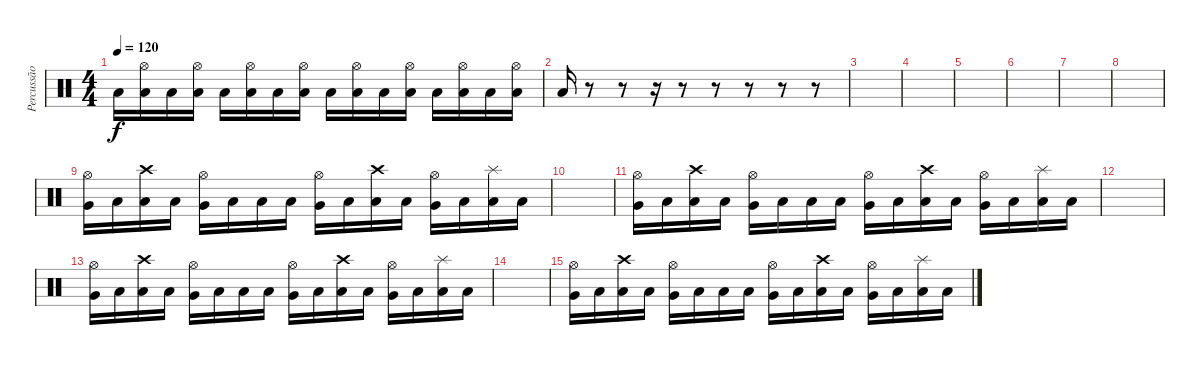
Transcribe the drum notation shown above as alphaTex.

\track ("Percussão" "Percussão") {instrument percussion}
\staff {score}
\articulation defaults
\ts (4 4)
\tempo 120
\clef neutral
\ks c "Low Tom (hit)".16{dy f}
("Low Tom (hit)" "Hi-Hat (open)").16 "Low Tom (hit)".16 ("Low Tom (hit)" "Hi-Hat (open)").16 "Low Tom (hit)".16 ("Low Tom (hit)" "Hi-Hat (open)").16 "Low Tom (hit)".16 ("Low Tom (hit)" "Hi-Hat (open)").16 "Low Tom (hit)".16 ("Low Tom (hit)" "Hi-Hat (open)").16 "Low Tom (hit)".16 ("Low Tom (hit)" "Hi-Hat (open)").16 "Low Tom (hit)".16 ("Low Tom (hit)" "Hi-Hat (open)").16 "Low Tom (hit)".16 ("Low Tom (hit)" "Hi-Hat (open)").16 |
"Low Tom (hit)".16 r.8 r.8 r.16 r.8 r.8 r.8 r.8 r.8 |
|
|
|
|
|
|
("Very Low Tom (hit)" "Hi-Hat (open)").16{volume 16} "Low Floor Tom (hit)".16 ("Low Floor Tom (hit)" "Crash high (hit)").16 "Low Floor Tom (hit)".16 ("Very Low Tom (hit)" "Hi-Hat (open)").16 "Low Floor Tom (hit)".16 "Low Floor Tom (hit)".16 "Low Floor Tom (hit)".16 ("Very Low Tom (hit)" "Hi-Hat (open)").16 "Low Floor Tom (hit)".16 ("Low Floor Tom (hit)" "Crash high (hit)").16 "Low Floor Tom (hit)".16 ("Very Low Tom (hit)" "Hi-Hat (open)").16 "Low Floor Tom (hit)".16 ("Low Floor Tom (hit)" "Splash (hit)").16 "Low Floor Tom (hit)".16 |
|
("Very Low Tom (hit)" "Hi-Hat (open)").16 "Low Floor Tom (hit)".16 ("Low Floor Tom (hit)" "Crash high (hit)").16 "Low Floor Tom (hit)".16 ("Very Low Tom (hit)" "Hi-Hat (open)").16 "Low Floor Tom (hit)".16 "Low Floor Tom (hit)".16 "Low Floor Tom (hit)".16 ("Very Low Tom (hit)" "Hi-Hat (open)").16 "Low Floor Tom (hit)".16 ("Low Floor Tom (hit)" "Crash high (hit)").16 "Low Floor Tom (hit)".16 ("Very Low Tom (hit)" "Hi-Hat (open)").16 "Low Floor Tom (hit)".16 ("Low Floor Tom (hit)" "Splash (hit)").16 "Low Floor Tom (hit)".16 |
|
("Very Low Tom (hit)" "Hi-Hat (open)").16 "Low Floor Tom (hit)".16 ("Low Floor Tom (hit)" "Crash high (hit)").16 "Low Floor Tom (hit)".16 ("Very Low Tom (hit)" "Hi-Hat (open)").16 "Low Floor Tom (hit)".16 "Low Floor Tom (hit)".16 "Low Floor Tom (hit)".16 ("Very Low Tom (hit)" "Hi-Hat (open)").16 "Low Floor Tom (hit)".16 ("Low Floor Tom (hit)" "Crash high (hit)").16 "Low Floor Tom (hit)".16 ("Very Low Tom (hit)" "Hi-Hat (open)").16 "Low Floor Tom (hit)".16 ("Low Floor Tom (hit)" "Splash (hit)").16 "Low Floor Tom (hit)".16 |
|
("Very Low Tom (hit)" "Hi-Hat (open)").16 "Low Floor Tom (hit)".16 ("Low Floor Tom (hit)" "Crash high (hit)").16 "Low Floor Tom (hit)".16 ("Very Low Tom (hit)" "Hi-Hat (open)").16 "Low Floor Tom (hit)".16 "Low Floor Tom (hit)".16 "Low Floor Tom (hit)".16 ("Very Low Tom (hit)" "Hi-Hat (open)").16 "Low Floor Tom (hit)".16 ("Low Floor Tom (hit)" "Crash high (hit)").16 "Low Floor Tom (hit)".16 ("Very Low Tom (hit)" "Hi-Hat (open)").16 "Low Floor Tom (hit)".16 ("Low Floor Tom (hit)" "Splash (hit)").16 "Low Floor Tom (hit)".16
